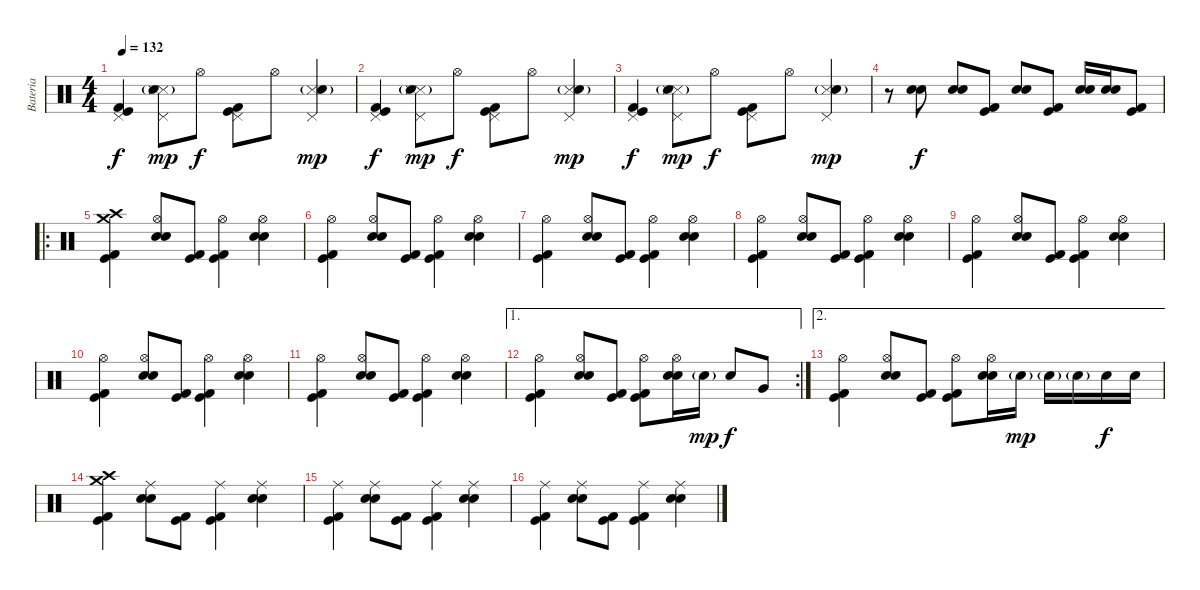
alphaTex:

\track ("Bateria" "Bateria") {instrument percussion}
\staff {score}
\articulation defaults
\ts (4 4)
\tempo 132
\clef neutral
\ks c
("Pedal Hi-Hat (hit)" "Kick (hit) 2" "Kick (hit)").4{dy f} ("Pedal Hi-Hat (hit)" "Snare (side stick) 3" "Snare (side stick) 3" "Electric Snare (hit)"{g}).8{dy mp} "Hi-Hat (open)".8{dy f} ("Pedal Hi-Hat (hit)" "Kick (hit) 2" "Kick (hit)").8 "Hi-Hat (open)".8 ("Pedal Hi-Hat (hit)" "Snare (side stick) 3" "Electric Snare (hit)"{g}).4{dy mp} |
("Pedal Hi-Hat (hit)" "Kick (hit) 2" "Kick (hit)").4{dy f} ("Pedal Hi-Hat (hit)" "Snare (side stick) 3" "Snare (side stick) 3" "Electric Snare (hit)"{g}).8{dy mp} "Hi-Hat (open)".8{dy f} ("Pedal Hi-Hat (hit)" "Kick (hit) 2" "Kick (hit)").8 "Hi-Hat (open)".8 ("Pedal Hi-Hat (hit)" "Snare (side stick) 3" "Electric Snare (hit)"{g}).4{dy mp} |
("Pedal Hi-Hat (hit)" "Kick (hit) 2" "Kick (hit)").4{dy f} ("Pedal Hi-Hat (hit)" "Snare (side stick) 3" "Snare (side stick) 3" "Electric Snare (hit)"{g}).8{dy mp} "Hi-Hat (open)".8{dy f} ("Pedal Hi-Hat (hit)" "Kick (hit) 2" "Kick (hit)").8 "Hi-Hat (open)".8 ("Pedal Hi-Hat (hit)" "Snare (side stick) 3" "Electric Snare (hit)"{g}).4{dy mp} |
r.8 ("Electric Snare (hit)" "Snare (hit) 2").8{dy f} ("Electric Snare (hit)" "Snare (hit) 2").8 ("Kick (hit)" "Kick (hit) 2").8 ("Electric Snare (hit)" "Snare (hit) 2").8 ("Kick (hit)" "Kick (hit) 2").8 ("Electric Snare (hit)" "Snare (hit) 2").16 ("Electric Snare (hit)" "Snare (hit) 2").16 ("Kick (hit)" "Kick (hit) 2").8 |
\ro
("Crash high (hit)" "Crash medium (hit)" "Kick (hit) 2" "Kick (hit)").4 ("Hi-Hat (open)" "Snare (hit) 2" "Electric Snare (hit)").8 ("Kick (hit) 2" "Kick (hit)").8 ("Hi-Hat (open)" "Kick (hit) 2" "Kick (hit)").4 ("Hi-Hat (open)" "Snare (hit) 2" "Electric Snare (hit)").4 |
("Hi-Hat (open)" "Kick (hit) 2" "Kick (hit)").4 ("Hi-Hat (open)" "Snare (hit) 2" "Electric Snare (hit)").8 ("Kick (hit) 2" "Kick (hit)").8 ("Hi-Hat (open)" "Kick (hit) 2" "Kick (hit)").4 ("Hi-Hat (open)" "Snare (hit) 2" "Electric Snare (hit)").4 |
("Hi-Hat (open)" "Kick (hit) 2" "Kick (hit)").4 ("Hi-Hat (open)" "Snare (hit) 2" "Electric Snare (hit)").8 ("Kick (hit) 2" "Kick (hit)").8 ("Hi-Hat (open)" "Kick (hit) 2" "Kick (hit)").4 ("Hi-Hat (open)" "Snare (hit) 2" "Electric Snare (hit)").4 |
("Hi-Hat (open)" "Kick (hit) 2" "Kick (hit)").4 ("Hi-Hat (open)" "Snare (hit) 2" "Electric Snare (hit)").8 ("Kick (hit) 2" "Kick (hit)").8 ("Hi-Hat (open)" "Kick (hit) 2" "Kick (hit)").4 ("Hi-Hat (open)" "Snare (hit) 2" "Electric Snare (hit)").4 |
("Hi-Hat (open)" "Kick (hit) 2" "Kick (hit)").4 ("Hi-Hat (open)" "Snare (hit) 2" "Electric Snare (hit)").8 ("Kick (hit) 2" "Kick (hit)").8 ("Hi-Hat (open)" "Kick (hit) 2" "Kick (hit)").4 ("Hi-Hat (open)" "Snare (hit) 2" "Electric Snare (hit)").4 |
("Hi-Hat (open)" "Kick (hit) 2" "Kick (hit)").4 ("Hi-Hat (open)" "Snare (hit) 2" "Electric Snare (hit)").8 ("Kick (hit) 2" "Kick (hit)").8 ("Hi-Hat (open)" "Kick (hit) 2" "Kick (hit)").4 ("Hi-Hat (open)" "Snare (hit) 2" "Electric Snare (hit)").4 |
("Hi-Hat (open)" "Kick (hit) 2" "Kick (hit)").4 ("Hi-Hat (open)" "Snare (hit) 2" "Electric Snare (hit)").8 ("Kick (hit) 2" "Kick (hit)").8 ("Hi-Hat (open)" "Kick (hit) 2" "Kick (hit)").4 ("Hi-Hat (open)" "Snare (hit) 2" "Electric Snare (hit)").4 |
\ae 1
\rc 2
("Hi-Hat (open)" "Kick (hit) 2" "Kick (hit)").4 ("Hi-Hat (open)" "Snare (hit) 2" "Electric Snare (hit)").8 ("Kick (hit) 2" "Kick (hit)").8 ("Hi-Hat (open)" "Kick (hit) 2" "Kick (hit)").8 ("Hi-Hat (open)" "Snare (hit) 2" "Electric Snare (hit)").16 "Snare (hit) 2"{g}.16{dy mp} "Snare (hit) 2".8{dy f} "Very Low Tom (hit)".8 |
\ae 2
("Hi-Hat (open)" "Kick (hit) 2" "Kick (hit)").4 ("Hi-Hat (open)" "Snare (hit) 2" "Electric Snare (hit)").8 ("Kick (hit) 2" "Kick (hit)").8 ("Hi-Hat (open)" "Kick (hit) 2" "Kick (hit)").8 ("Hi-Hat (open)" "Snare (hit) 2" "Electric Snare (hit)").16 "Snare (hit) 2"{g}.16{dy mp} "Snare (hit) 2"{g}.16 "Snare (hit) 2"{g}.16 "Snare (hit) 2".16{dy f} "Snare (hit) 2".16 |
("Crash high (hit)" "Crash medium (hit)" "Kick (hit) 2" "Kick (hit)").4 ("Ride (middle)" "Snare (hit) 2" "Electric Snare (hit)").8 ("Kick (hit) 2" "Kick (hit)").8 ("Ride (middle)" "Kick (hit) 2" "Kick (hit)").4 ("Ride (middle)" "Snare (hit) 2" "Electric Snare (hit)").4 |
("Ride (middle)" "Kick (hit) 2" "Kick (hit)").4 ("Ride (middle)" "Snare (hit) 2" "Electric Snare (hit)").8 ("Kick (hit) 2" "Kick (hit)").8 ("Ride (middle)" "Kick (hit) 2" "Kick (hit)").4 ("Ride (middle)" "Snare (hit) 2" "Electric Snare (hit)").4 |
("Ride (middle)" "Kick (hit) 2" "Kick (hit)").4 ("Ride (middle)" "Snare (hit) 2" "Electric Snare (hit)").8 ("Kick (hit) 2" "Kick (hit)").8 ("Ride (middle)" "Kick (hit) 2" "Kick (hit)").4 ("Ride (middle)" "Snare (hit) 2" "Electric Snare (hit)").4
